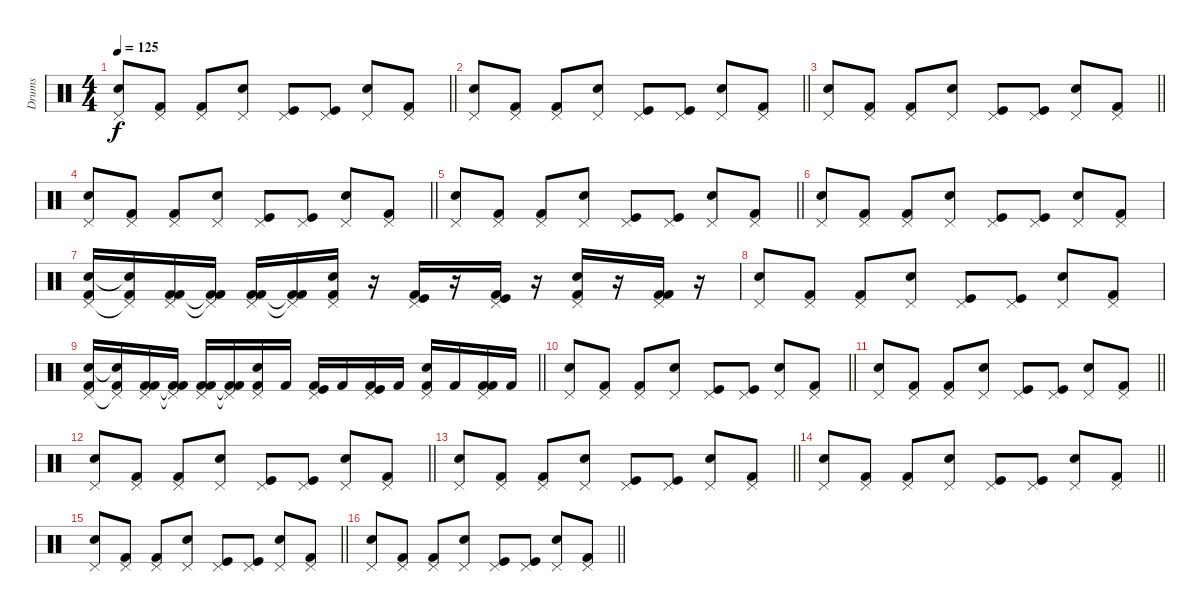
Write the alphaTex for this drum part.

\track ("Drums" "Drums") {instrument percussion}
\staff {score}
\articulation defaults
\ts (4 4)
\tempo 125
\clef neutral
\barLineRight lightlight
\ks c
("Electric Snare (hit)" "Pedal Hi-Hat (hit)").8{dy f} ("Kick (hit) 2" "Pedal Hi-Hat (hit)").8 ("Kick (hit) 2" "Pedal Hi-Hat (hit)").8 ("Electric Snare (hit)" "Pedal Hi-Hat (hit)").8 ("Kick (hit)" "Pedal Hi-Hat (hit)").8 ("Kick (hit)" "Pedal Hi-Hat (hit)").8 ("Electric Snare (hit)" "Pedal Hi-Hat (hit)").8 ("Kick (hit) 2" "Pedal Hi-Hat (hit)").8 |
\section ("" "")
\barLineRight lightlight
("Electric Snare (hit)" "Pedal Hi-Hat (hit)").8 ("Kick (hit) 2" "Pedal Hi-Hat (hit)").8 ("Kick (hit) 2" "Pedal Hi-Hat (hit)").8 ("Electric Snare (hit)" "Pedal Hi-Hat (hit)").8 ("Kick (hit)" "Pedal Hi-Hat (hit)").8 ("Kick (hit)" "Pedal Hi-Hat (hit)").8 ("Electric Snare (hit)" "Pedal Hi-Hat (hit)").8 ("Kick (hit) 2" "Pedal Hi-Hat (hit)").8 |
\barLineRight lightlight
("Electric Snare (hit)" "Pedal Hi-Hat (hit)").8 ("Kick (hit) 2" "Pedal Hi-Hat (hit)").8 ("Kick (hit) 2" "Pedal Hi-Hat (hit)").8 ("Electric Snare (hit)" "Pedal Hi-Hat (hit)").8 ("Kick (hit)" "Pedal Hi-Hat (hit)").8 ("Kick (hit)" "Pedal Hi-Hat (hit)").8 ("Electric Snare (hit)" "Pedal Hi-Hat (hit)").8 ("Kick (hit) 2" "Pedal Hi-Hat (hit)").8 |
\barLineRight lightlight
("Electric Snare (hit)" "Pedal Hi-Hat (hit)").8 ("Kick (hit) 2" "Pedal Hi-Hat (hit)").8 ("Kick (hit) 2" "Pedal Hi-Hat (hit)").8 ("Electric Snare (hit)" "Pedal Hi-Hat (hit)").8 ("Kick (hit)" "Pedal Hi-Hat (hit)").8 ("Kick (hit)" "Pedal Hi-Hat (hit)").8 ("Electric Snare (hit)" "Pedal Hi-Hat (hit)").8 ("Kick (hit) 2" "Pedal Hi-Hat (hit)").8 |
\barLineRight lightlight
("Electric Snare (hit)" "Pedal Hi-Hat (hit)").8 ("Kick (hit) 2" "Pedal Hi-Hat (hit)").8 ("Kick (hit) 2" "Pedal Hi-Hat (hit)").8 ("Electric Snare (hit)" "Pedal Hi-Hat (hit)").8 ("Kick (hit)" "Pedal Hi-Hat (hit)").8 ("Kick (hit)" "Pedal Hi-Hat (hit)").8 ("Electric Snare (hit)" "Pedal Hi-Hat (hit)").8 ("Kick (hit) 2" "Pedal Hi-Hat (hit)").8 |
\section ("" "")
("Electric Snare (hit)" "Pedal Hi-Hat (hit)").8 ("Kick (hit) 2" "Pedal Hi-Hat (hit)").8 ("Kick (hit) 2" "Pedal Hi-Hat (hit)").8 ("Electric Snare (hit)" "Pedal Hi-Hat (hit)").8 ("Kick (hit)" "Pedal Hi-Hat (hit)").8 ("Kick (hit)" "Pedal Hi-Hat (hit)").8 ("Electric Snare (hit)" "Pedal Hi-Hat (hit)").8 ("Kick (hit) 2" "Pedal Hi-Hat (hit)").8 |
("Kick (hit) 2" "Electric Snare (hit)" "Pedal Hi-Hat (hit)").16 ("Kick (hit) 2" "Electric Snare (hit)"{t} "Pedal Hi-Hat (hit)"{t}).16 ("Kick (hit) 2" "Kick (hit) 2" "Pedal Hi-Hat (hit)").16 ("Kick (hit) 2" "Kick (hit) 2"{t} "Pedal Hi-Hat (hit)"{t}).16 ("Kick (hit) 2" "Kick (hit) 2" "Pedal Hi-Hat (hit)").16 ("Kick (hit) 2" "Kick (hit) 2"{t} "Pedal Hi-Hat (hit)"{t}).16 ("Kick (hit) 2" "Electric Snare (hit)" "Pedal Hi-Hat (hit)").16 r.16 ("Kick (hit) 2" "Kick (hit)" "Pedal Hi-Hat (hit)").16 r.16 ("Kick (hit) 2" "Kick (hit)" "Pedal Hi-Hat (hit)").16 r.16 ("Kick (hit) 2" "Electric Snare (hit)" "Pedal Hi-Hat (hit)").16 r.16 ("Kick (hit) 2" "Kick (hit) 2" "Pedal Hi-Hat (hit)").16 r.16 |
("Electric Snare (hit)" "Pedal Hi-Hat (hit)").8 ("Kick (hit) 2" "Pedal Hi-Hat (hit)").8 ("Kick (hit) 2" "Pedal Hi-Hat (hit)").8 ("Electric Snare (hit)" "Pedal Hi-Hat (hit)").8 ("Kick (hit)" "Pedal Hi-Hat (hit)").8 ("Kick (hit)" "Pedal Hi-Hat (hit)").8 ("Electric Snare (hit)" "Pedal Hi-Hat (hit)").8 ("Kick (hit) 2" "Pedal Hi-Hat (hit)").8 |
\barLineRight lightlight
("Kick (hit) 2" "Electric Snare (hit)" "Pedal Hi-Hat (hit)").16 ("Kick (hit) 2" "Electric Snare (hit)"{t} "Pedal Hi-Hat (hit)"{t}).16 ("Kick (hit) 2" "Kick (hit) 2" "Pedal Hi-Hat (hit)").16 ("Kick (hit) 2" "Kick (hit) 2"{t} "Pedal Hi-Hat (hit)"{t}).16 ("Kick (hit) 2" "Kick (hit) 2" "Pedal Hi-Hat (hit)").16 ("Kick (hit) 2" "Kick (hit) 2"{t} "Pedal Hi-Hat (hit)"{t}).16 ("Kick (hit) 2" "Electric Snare (hit)" "Pedal Hi-Hat (hit)").16 "Kick (hit) 2".16 ("Kick (hit) 2" "Kick (hit)" "Pedal Hi-Hat (hit)").16 "Kick (hit) 2".16 ("Kick (hit) 2" "Kick (hit)" "Pedal Hi-Hat (hit)").16 "Kick (hit) 2".16 ("Kick (hit) 2" "Electric Snare (hit)" "Pedal Hi-Hat (hit)").16 "Kick (hit) 2".16 ("Kick (hit) 2" "Kick (hit) 2" "Pedal Hi-Hat (hit)").16 "Kick (hit) 2".16 |
\barLineRight lightlight
("Electric Snare (hit)" "Pedal Hi-Hat (hit)").8 ("Kick (hit) 2" "Pedal Hi-Hat (hit)").8 ("Kick (hit) 2" "Pedal Hi-Hat (hit)").8 ("Electric Snare (hit)" "Pedal Hi-Hat (hit)").8 ("Kick (hit)" "Pedal Hi-Hat (hit)").8 ("Kick (hit)" "Pedal Hi-Hat (hit)").8 ("Electric Snare (hit)" "Pedal Hi-Hat (hit)").8 ("Kick (hit) 2" "Pedal Hi-Hat (hit)").8 |
\barLineRight lightlight
("Electric Snare (hit)" "Pedal Hi-Hat (hit)").8 ("Kick (hit) 2" "Pedal Hi-Hat (hit)").8 ("Kick (hit) 2" "Pedal Hi-Hat (hit)").8 ("Electric Snare (hit)" "Pedal Hi-Hat (hit)").8 ("Kick (hit)" "Pedal Hi-Hat (hit)").8 ("Kick (hit)" "Pedal Hi-Hat (hit)").8 ("Electric Snare (hit)" "Pedal Hi-Hat (hit)").8 ("Kick (hit) 2" "Pedal Hi-Hat (hit)").8 |
\barLineRight lightlight
("Electric Snare (hit)" "Pedal Hi-Hat (hit)").8 ("Kick (hit) 2" "Pedal Hi-Hat (hit)").8 ("Kick (hit) 2" "Pedal Hi-Hat (hit)").8 ("Electric Snare (hit)" "Pedal Hi-Hat (hit)").8 ("Kick (hit)" "Pedal Hi-Hat (hit)").8 ("Kick (hit)" "Pedal Hi-Hat (hit)").8 ("Electric Snare (hit)" "Pedal Hi-Hat (hit)").8 ("Kick (hit) 2" "Pedal Hi-Hat (hit)").8 |
\barLineRight lightlight
("Electric Snare (hit)" "Pedal Hi-Hat (hit)").8 ("Kick (hit) 2" "Pedal Hi-Hat (hit)").8 ("Kick (hit) 2" "Pedal Hi-Hat (hit)").8 ("Electric Snare (hit)" "Pedal Hi-Hat (hit)").8 ("Kick (hit)" "Pedal Hi-Hat (hit)").8 ("Kick (hit)" "Pedal Hi-Hat (hit)").8 ("Electric Snare (hit)" "Pedal Hi-Hat (hit)").8 ("Kick (hit) 2" "Pedal Hi-Hat (hit)").8 |
\barLineRight lightlight
("Electric Snare (hit)" "Pedal Hi-Hat (hit)").8 ("Kick (hit) 2" "Pedal Hi-Hat (hit)").8 ("Kick (hit) 2" "Pedal Hi-Hat (hit)").8 ("Electric Snare (hit)" "Pedal Hi-Hat (hit)").8 ("Kick (hit)" "Pedal Hi-Hat (hit)").8 ("Kick (hit)" "Pedal Hi-Hat (hit)").8 ("Electric Snare (hit)" "Pedal Hi-Hat (hit)").8 ("Kick (hit) 2" "Pedal Hi-Hat (hit)").8 |
\barLineRight lightlight
("Electric Snare (hit)" "Pedal Hi-Hat (hit)").8 ("Kick (hit) 2" "Pedal Hi-Hat (hit)").8 ("Kick (hit) 2" "Pedal Hi-Hat (hit)").8 ("Electric Snare (hit)" "Pedal Hi-Hat (hit)").8 ("Kick (hit)" "Pedal Hi-Hat (hit)").8 ("Kick (hit)" "Pedal Hi-Hat (hit)").8 ("Electric Snare (hit)" "Pedal Hi-Hat (hit)").8 ("Kick (hit) 2" "Pedal Hi-Hat (hit)").8 |
\barLineRight lightlight
("Electric Snare (hit)" "Pedal Hi-Hat (hit)").8 ("Kick (hit) 2" "Pedal Hi-Hat (hit)").8 ("Kick (hit) 2" "Pedal Hi-Hat (hit)").8 ("Electric Snare (hit)" "Pedal Hi-Hat (hit)").8 ("Kick (hit)" "Pedal Hi-Hat (hit)").8 ("Kick (hit)" "Pedal Hi-Hat (hit)").8 ("Electric Snare (hit)" "Pedal Hi-Hat (hit)").8 ("Kick (hit) 2" "Pedal Hi-Hat (hit)").8
